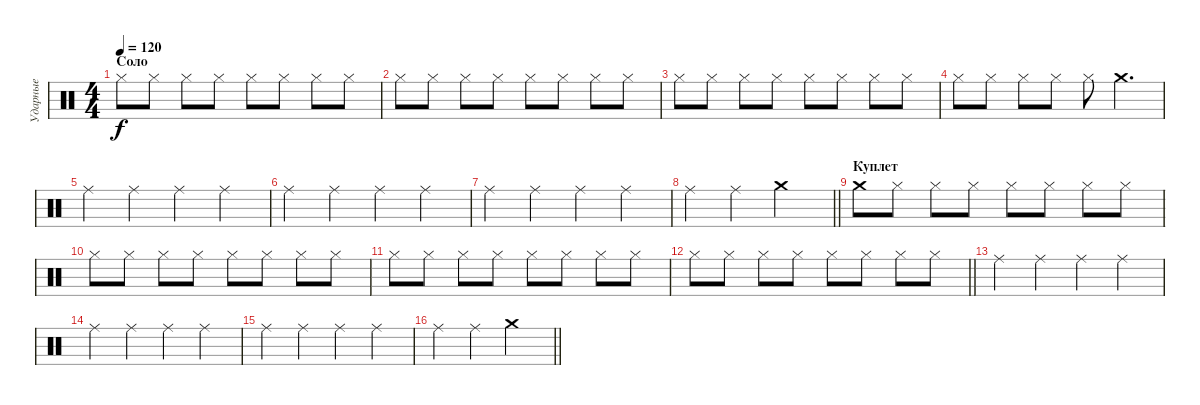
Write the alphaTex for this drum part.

\track ("Ударные" "Ударные") {instrument percussion}
\staff {score}
\articulation defaults
\ts (4 4)
\section ("" "Соло")
\tempo 120
\clef neutral
\ks c "Hi-Hat (closed)".8{dy f} "Hi-Hat (closed)".8 "Hi-Hat (closed)".8 "Hi-Hat (closed)".8 "Hi-Hat (closed)".8 "Hi-Hat (closed)".8 "Hi-Hat (closed)".8 "Hi-Hat (closed)".8
|
"Hi-Hat (closed)".8 "Hi-Hat (closed)".8 "Hi-Hat (closed)".8 "Hi-Hat (closed)".8 "Hi-Hat (closed)".8 "Hi-Hat (closed)".8 "Hi-Hat (closed)".8 "Hi-Hat (closed)".8 |
"Hi-Hat (closed)".8 "Hi-Hat (closed)".8 "Hi-Hat (closed)".8 "Hi-Hat (closed)".8 "Hi-Hat (closed)".8 "Hi-Hat (closed)".8 "Hi-Hat (closed)".8 "Hi-Hat (closed)".8 |
"Hi-Hat (closed)".8 "Hi-Hat (closed)".8 "Hi-Hat (closed)".8 "Hi-Hat (closed)".8 "Hi-Hat (closed)".8 "Crash medium (hit)".4{d} |
"Ride (middle)".4 "Ride (middle)".4 "Ride (middle)".4 "Ride (middle)".4 |
"Ride (middle)".4 "Ride (middle)".4 "Ride (middle)".4 "Ride (middle)".4 |
"Ride (middle)".4 "Ride (middle)".4 "Ride (middle)".4 "Ride (middle)".4 |
\barLineRight lightlight "Ride (middle)".4 "Ride (middle)".4 "Crash medium (hit)".2
|
\section ("" "Куплет")
"Crash medium (hit)".8 "Hi-Hat (closed)".8 "Hi-Hat (closed)".8 "Hi-Hat (closed)".8 "Hi-Hat (closed)".8 "Hi-Hat (closed)".8 "Hi-Hat (closed)".8 "Hi-Hat (closed)".8 |
"Hi-Hat (closed)".8 "Hi-Hat (closed)".8 "Hi-Hat (closed)".8 "Hi-Hat (closed)".8 "Hi-Hat (closed)".8 "Hi-Hat (closed)".8 "Hi-Hat (closed)".8 "Hi-Hat (closed)".8 |
"Hi-Hat (closed)".8 "Hi-Hat (closed)".8 "Hi-Hat (closed)".8 "Hi-Hat (closed)".8 "Hi-Hat (closed)".8 "Hi-Hat (closed)".8 "Hi-Hat (closed)".8 "Hi-Hat (closed)".8 |
\barLineRight lightlight "Hi-Hat (closed)".8 "Hi-Hat (closed)".8 "Hi-Hat (closed)".8 "Hi-Hat (closed)".8 "Hi-Hat (closed)".8 "Hi-Hat (closed)".8 "Hi-Hat (closed)".8 "Hi-Hat (closed)".8
|
"Ride (middle)".4 "Ride (middle)".4 "Ride (middle)".4 "Ride (middle)".4 |
"Ride (middle)".4 "Ride (middle)".4 "Ride (middle)".4 "Ride (middle)".4 |
"Ride (middle)".4 "Ride (middle)".4 "Ride (middle)".4 "Ride (middle)".4 |
\barLineRight lightlight "Ride (middle)".4 "Ride (middle)".4 "Crash medium (hit)".2
